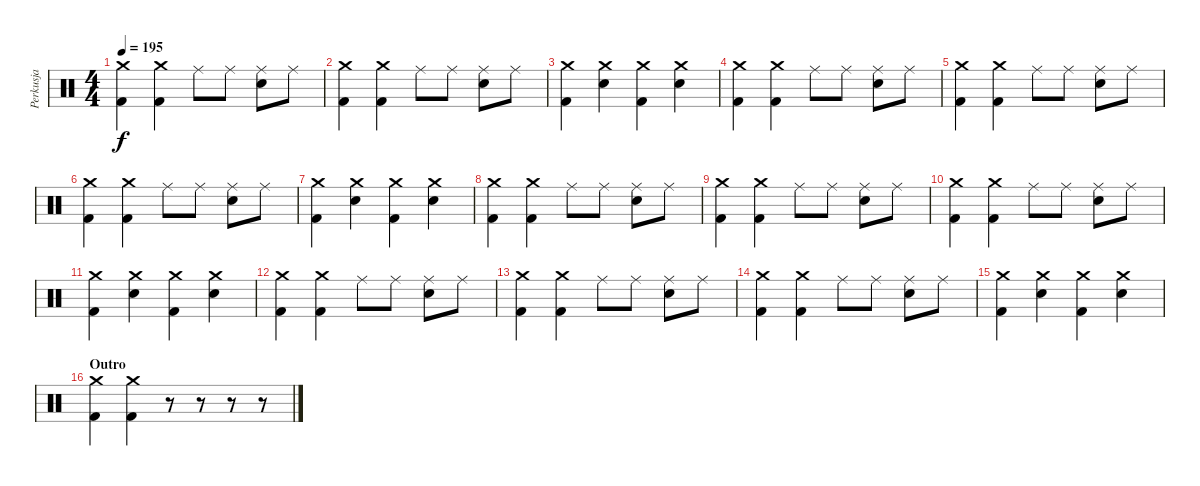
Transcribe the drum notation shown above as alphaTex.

\track ("Perkusja" "Perkusja") {instrument percussion}
\staff {score}
\articulation defaults
\ts (4 4)
\tempo 195
\clef neutral
\ks c
("Crash medium (hit)" "Kick (hit) 2").4{dy f} ("Crash medium (hit)" "Kick (hit) 2").4 "Ride (middle)".8 "Ride (middle)".8 ("Ride (middle)" "Snare (hit) 2").8 "Ride (middle)".8 |
("Crash medium (hit)" "Kick (hit) 2").4 ("Crash medium (hit)" "Kick (hit) 2").4 "Ride (middle)".8 "Ride (middle)".8 ("Ride (middle)" "Snare (hit) 2").8 "Ride (middle)".8 |
("Crash medium (hit)" "Kick (hit) 2").4 ("Crash medium (hit)" "Snare (hit) 2").4 ("Crash medium (hit)" "Kick (hit) 2").4 ("Crash medium (hit)" "Snare (hit) 2").4 |
("Crash medium (hit)" "Kick (hit) 2").4 ("Crash medium (hit)" "Kick (hit) 2").4 "Ride (middle)".8 "Ride (middle)".8 ("Ride (middle)" "Snare (hit) 2").8 "Ride (middle)".8 |
("Crash medium (hit)" "Kick (hit) 2").4 ("Crash medium (hit)" "Kick (hit) 2").4 "Ride (middle)".8 "Ride (middle)".8 ("Ride (middle)" "Snare (hit) 2").8 "Ride (middle)".8 |
("Crash medium (hit)" "Kick (hit) 2").4 ("Crash medium (hit)" "Kick (hit) 2").4 "Ride (middle)".8 "Ride (middle)".8 ("Ride (middle)" "Snare (hit) 2").8 "Ride (middle)".8 |
("Crash medium (hit)" "Kick (hit) 2").4 ("Crash medium (hit)" "Snare (hit) 2").4 ("Crash medium (hit)" "Kick (hit) 2").4 ("Crash medium (hit)" "Snare (hit) 2").4 |
("Crash medium (hit)" "Kick (hit) 2").4 ("Crash medium (hit)" "Kick (hit) 2").4 "Ride (middle)".8 "Ride (middle)".8 ("Ride (middle)" "Snare (hit) 2").8 "Ride (middle)".8 |
("Crash medium (hit)" "Kick (hit) 2").4 ("Crash medium (hit)" "Kick (hit) 2").4 "Ride (middle)".8 "Ride (middle)".8 ("Ride (middle)" "Snare (hit) 2").8 "Ride (middle)".8 |
("Crash medium (hit)" "Kick (hit) 2").4 ("Crash medium (hit)" "Kick (hit) 2").4 "Ride (middle)".8 "Ride (middle)".8 ("Ride (middle)" "Snare (hit) 2").8 "Ride (middle)".8 |
("Crash medium (hit)" "Kick (hit) 2").4 ("Crash medium (hit)" "Snare (hit) 2").4 ("Crash medium (hit)" "Kick (hit) 2").4 ("Crash medium (hit)" "Snare (hit) 2").4 |
("Crash medium (hit)" "Kick (hit) 2").4 ("Crash medium (hit)" "Kick (hit) 2").4 "Ride (middle)".8 "Ride (middle)".8 ("Ride (middle)" "Snare (hit) 2").8 "Ride (middle)".8 |
("Crash medium (hit)" "Kick (hit) 2").4 ("Crash medium (hit)" "Kick (hit) 2").4 "Ride (middle)".8 "Ride (middle)".8 ("Ride (middle)" "Snare (hit) 2").8 "Ride (middle)".8 |
("Crash medium (hit)" "Kick (hit) 2").4 ("Crash medium (hit)" "Kick (hit) 2").4 "Ride (middle)".8 "Ride (middle)".8 ("Ride (middle)" "Snare (hit) 2").8 "Ride (middle)".8 |
("Crash medium (hit)" "Kick (hit) 2").4 ("Crash medium (hit)" "Snare (hit) 2").4 ("Crash medium (hit)" "Kick (hit) 2").4 ("Crash medium (hit)" "Snare (hit) 2").4 |
\section ("" "Outro")
("Crash medium (hit)" "Kick (hit) 2").4 ("Crash medium (hit)" "Kick (hit) 2").4 r.8 r.8 r.8 r.8
